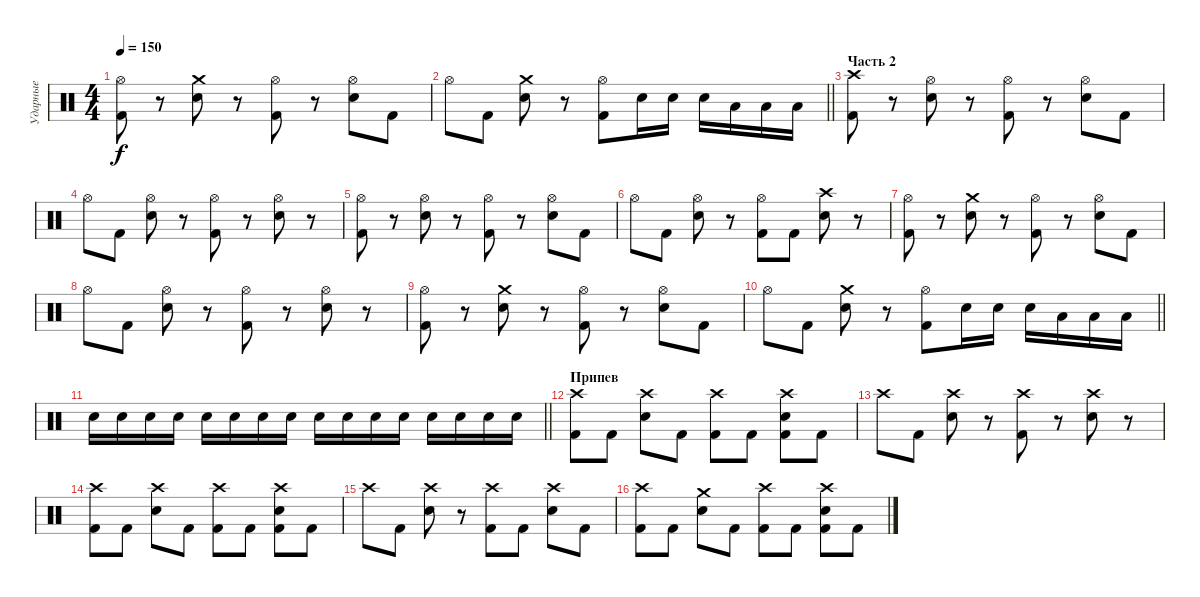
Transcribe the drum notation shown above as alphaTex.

\track ("Ударные" "Ударные") {instrument percussion}
\staff {score}
\articulation defaults
\ts (4 4)
\tempo 150
\clef neutral
\ks c
("Hi-Hat (open)" "Kick (hit) 2").8{dy f} r.8 ("Crash medium (hit)" "Snare (hit) 2").8 r.8 ("Hi-Hat (open)" "Kick (hit) 2").8 r.8 ("Hi-Hat (open)" "Snare (hit) 2").8 "Kick (hit) 2".8 |
\barLineRight lightlight "Hi-Hat (open)".8 "Kick (hit) 2".8
("Crash medium (hit)" "Snare (hit) 2").8 r.8 ("Hi-Hat (open)" "Kick (hit) 2").8 "Snare (hit) 2".16 "Snare (hit) 2".16 "Snare (hit) 2".16 "Low Floor Tom (hit)".16 "Low Floor Tom (hit)".16 "Low Floor Tom (hit)".16 |
\section ("" "Часть 2")
("Crash high (hit)" "Kick (hit) 2").8 r.8 ("Hi-Hat (open)" "Snare (hit) 2").8 r.8 ("Hi-Hat (open)" "Kick (hit) 2").8 r.8 ("Hi-Hat (open)" "Snare (hit) 2").8 "Kick (hit) 2".8 |
"Hi-Hat (open)".8 "Kick (hit) 2".8 ("Hi-Hat (open)" "Snare (hit) 2").8 r.8 ("Hi-Hat (open)" "Kick (hit) 2").8 r.8 ("Hi-Hat (open)" "Snare (hit) 2").8 r.8 |
("Hi-Hat (open)" "Kick (hit) 2").8 r.8 ("Hi-Hat (open)" "Snare (hit) 2").8 r.8 ("Hi-Hat (open)" "Kick (hit) 2").8 r.8 ("Hi-Hat (open)" "Snare (hit) 2").8 "Kick (hit) 2".8 |
"Hi-Hat (open)".8 "Kick (hit) 2".8 ("Hi-Hat (open)" "Snare (hit) 2").8 r.8 ("Hi-Hat (open)" "Kick (hit) 2").8 "Kick (hit) 2".8 ("Crash high (hit)" "Snare (hit) 2").8 r.8 |
("Hi-Hat (open)" "Kick (hit) 2").8 r.8 ("Crash medium (hit)" "Snare (hit) 2").8 r.8 ("Hi-Hat (open)" "Kick (hit) 2").8 r.8 ("Hi-Hat (open)" "Snare (hit) 2").8 "Kick (hit) 2".8 |
"Hi-Hat (open)".8 "Kick (hit) 2".8 ("Hi-Hat (open)" "Snare (hit) 2").8 r.8 ("Hi-Hat (open)" "Kick (hit) 2").8 r.8 ("Hi-Hat (open)" "Snare (hit) 2").8 r.8 |
("Hi-Hat (open)" "Kick (hit) 2").8 r.8 ("Crash medium (hit)" "Snare (hit) 2").8 r.8 ("Hi-Hat (open)" "Kick (hit) 2").8 r.8 ("Hi-Hat (open)" "Snare (hit) 2").8 "Kick (hit) 2".8 |
\barLineRight lightlight "Hi-Hat (open)".8 "Kick (hit) 2".8
("Crash medium (hit)" "Snare (hit) 2").8 r.8 ("Hi-Hat (open)" "Kick (hit) 2").8 "Snare (hit) 2".16 "Snare (hit) 2".16 "Snare (hit) 2".16 "Low Floor Tom (hit)".16 "Low Floor Tom (hit)".16 "Low Floor Tom (hit)".16 |
\barLineRight lightlight "Snare (hit) 2".16 "Snare (hit) 2".16 "Snare (hit) 2".16 "Snare (hit) 2".16 "Snare (hit) 2".16 "Snare (hit) 2".16 "Snare (hit) 2".16 "Snare (hit) 2".16 "Snare (hit) 2".16 "Snare (hit) 2".16 "Snare (hit) 2".16 "Snare (hit) 2".16 "Snare (hit) 2".16 "Snare (hit) 2".16 "Snare (hit) 2".16 "Snare (hit) 2".16
|
\section ("" "Припев")
("Crash high (hit)" "Kick (hit) 2").8 "Kick (hit) 2".8 ("Crash high (hit)" "Snare (hit) 2").8 "Kick (hit) 2".8 ("Crash high (hit)" "Kick (hit) 2").8 "Kick (hit) 2".8 ("Crash high (hit)" "Snare (hit) 2" "Kick (hit) 2").8 "Kick (hit) 2".8 |
"Crash high (hit)".8 "Kick (hit) 2".8 ("Crash high (hit)" "Snare (hit) 2").8 r.8 ("Crash high (hit)" "Kick (hit) 2").8 r.8 ("Crash high (hit)" "Snare (hit) 2").8 r.8 |
("Crash high (hit)" "Kick (hit) 2").8 "Kick (hit) 2".8 ("Crash high (hit)" "Snare (hit) 2").8 "Kick (hit) 2".8 ("Crash high (hit)" "Kick (hit) 2").8 "Kick (hit) 2".8 ("Crash high (hit)" "Snare (hit) 2" "Kick (hit) 2").8 "Kick (hit) 2".8 |
"Crash high (hit)".8 "Kick (hit) 2".8 ("Crash high (hit)" "Snare (hit) 2").8 r.8 ("Crash high (hit)" "Kick (hit) 2").8 "Kick (hit) 2".8 ("Crash high (hit)" "Snare (hit) 2").8 "Kick (hit) 2".8 |
("Crash high (hit)" "Kick (hit) 2").8 "Kick (hit) 2".8 ("Crash medium (hit)" "Snare (hit) 2").8 "Kick (hit) 2".8 ("Crash high (hit)" "Kick (hit) 2").8 "Kick (hit) 2".8 ("Crash high (hit)" "Snare (hit) 2" "Kick (hit) 2").8 "Kick (hit) 2".8
